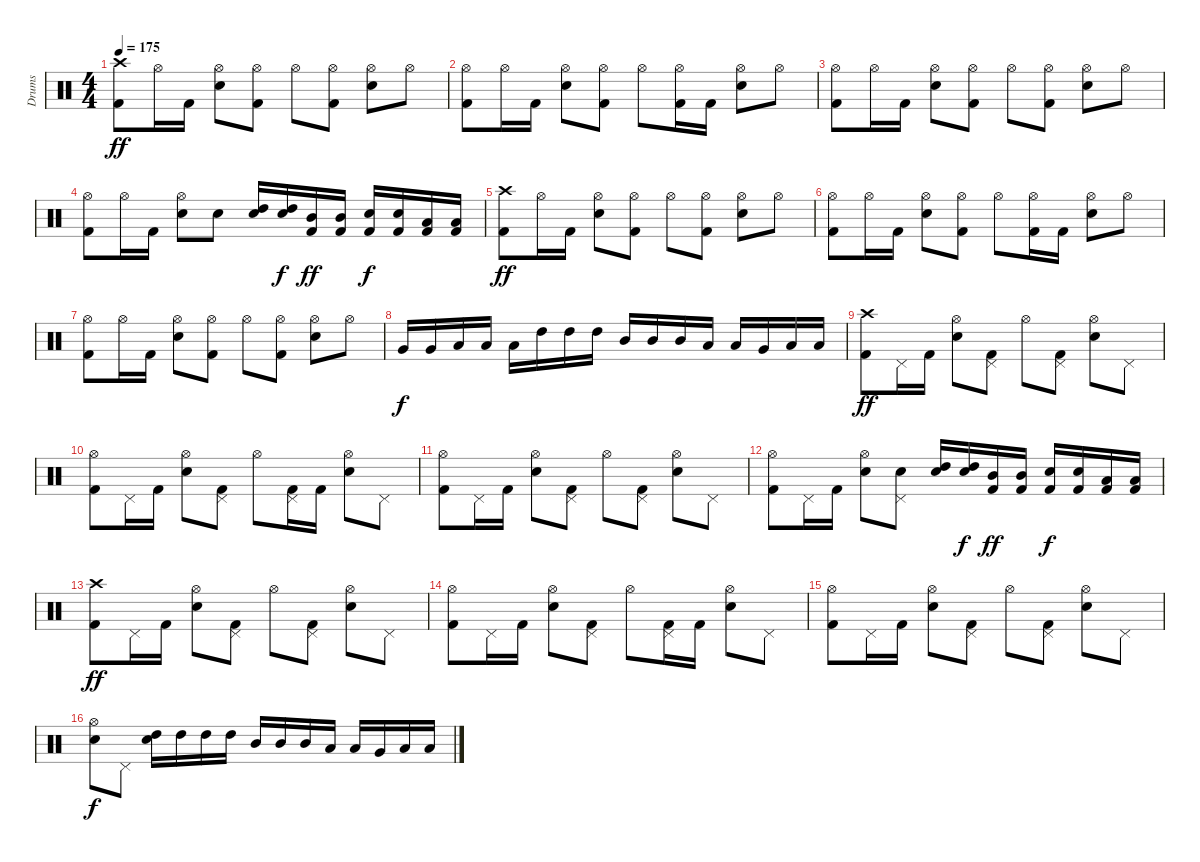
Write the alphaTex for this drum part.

\track ("Drums" "Drums") {instrument percussion}
\staff {score}
\articulation defaults
\ts (4 4)
\tempo 175
\clef neutral
\ks c
("Kick (hit) 2" "Crash high (hit)").8{dy ff} "Hi-Hat (open)".16 "Kick (hit) 2".16 ("Hi-Hat (open)" "Electric Snare (hit)").8 ("Kick (hit) 2" "Hi-Hat (open)").8 "Hi-Hat (open)".8 ("Kick (hit) 2" "Hi-Hat (open)").8 ("Hi-Hat (open)" "Electric Snare (hit)").8 "Hi-Hat (open)".8 |
("Kick (hit) 2" "Hi-Hat (open)").8 "Hi-Hat (open)".16 "Kick (hit) 2".16 ("Hi-Hat (open)" "Electric Snare (hit)").8 ("Kick (hit) 2" "Hi-Hat (open)").8 "Hi-Hat (open)".8 ("Kick (hit) 2" "Hi-Hat (open)").16 "Kick (hit) 2".16 ("Hi-Hat (open)" "Electric Snare (hit)").8 "Hi-Hat (open)".8 |
("Kick (hit) 2" "Hi-Hat (open)").8 "Hi-Hat (open)".16 "Kick (hit) 2".16 ("Hi-Hat (open)" "Electric Snare (hit)").8 ("Kick (hit) 2" "Hi-Hat (open)").8 "Hi-Hat (open)".8 ("Kick (hit) 2" "Hi-Hat (open)").8 ("Hi-Hat (open)" "Electric Snare (hit)").8 "Hi-Hat (open)".8 |
("Kick (hit) 2" "Hi-Hat (open)").8 "Hi-Hat (open)".16 "Kick (hit) 2".16 ("Hi-Hat (open)" "Electric Snare (hit)").8 "Snare (hit) 2".8 ("Electric Snare (hit)" "High Tom (hit)").16 ("Electric Snare (hit)" "High Tom (hit)").16{dy f} ("Kick (hit) 2" "Mid Tom (hit)").16{dy ff} ("Kick (hit) 2" "Mid Tom (hit)").16 ("Kick (hit) 2" "Electric Snare (hit)").16{dy f} ("Kick (hit) 2" "Electric Snare (hit)").16 ("Kick (hit) 2" "Low Tom (hit)").16 ("Kick (hit) 2" "Low Tom (hit)").16 |
("Kick (hit) 2" "Crash high (hit)").8{dy ff} "Hi-Hat (open)".16 "Kick (hit) 2".16 ("Hi-Hat (open)" "Electric Snare (hit)").8 ("Kick (hit) 2" "Hi-Hat (open)").8 "Hi-Hat (open)".8 ("Kick (hit) 2" "Hi-Hat (open)").8 ("Hi-Hat (open)" "Electric Snare (hit)").8 "Hi-Hat (open)".8 |
("Kick (hit) 2" "Hi-Hat (open)").8 "Hi-Hat (open)".16 "Kick (hit) 2".16 ("Hi-Hat (open)" "Electric Snare (hit)").8 ("Kick (hit) 2" "Hi-Hat (open)").8 "Hi-Hat (open)".8 ("Kick (hit) 2" "Hi-Hat (open)").16 "Kick (hit) 2".16 ("Hi-Hat (open)" "Electric Snare (hit)").8 "Hi-Hat (open)".8 |
("Kick (hit) 2" "Hi-Hat (open)").8 "Hi-Hat (open)".16 "Kick (hit) 2".16 ("Hi-Hat (open)" "Electric Snare (hit)").8 ("Kick (hit) 2" "Hi-Hat (open)").8 "Hi-Hat (open)".8 ("Kick (hit) 2" "Hi-Hat (open)").8 ("Hi-Hat (open)" "Electric Snare (hit)").8 "Hi-Hat (open)".8 |
"Very Low Tom (hit)".16{dy f} "Very Low Tom (hit)".16 "Low Tom (hit)".16 "Low Tom (hit)".16 "Low Tom (hit)".16 "High Tom (hit)".16 "High Tom (hit)".16 "High Tom (hit)".16 "Mid Tom (hit)".16 "Mid Tom (hit)".16 "Mid Tom (hit)".16 "Low Tom (hit)".16 "Low Tom (hit)".16 "Very Low Tom (hit)".16 "Low Floor Tom (hit)".16 "Low Floor Tom (hit)".16 |
("Kick (hit) 2" "Crash high (hit)").8{dy ff} "Pedal Hi-Hat (hit)".16 "Kick (hit) 2".16 ("Hi-Hat (open)" "Electric Snare (hit)").8 ("Kick (hit) 2" "Pedal Hi-Hat (hit)").8 "Hi-Hat (open)".8 ("Kick (hit) 2" "Pedal Hi-Hat (hit)").8 ("Hi-Hat (open)" "Electric Snare (hit)").8 "Pedal Hi-Hat (hit)".8 |
("Kick (hit) 2" "Hi-Hat (open)").8 "Pedal Hi-Hat (hit)".16 "Kick (hit) 2".16 ("Hi-Hat (open)" "Electric Snare (hit)").8 ("Kick (hit) 2" "Pedal Hi-Hat (hit)").8 "Hi-Hat (open)".8 ("Kick (hit) 2" "Pedal Hi-Hat (hit)").16 "Kick (hit) 2".16 ("Hi-Hat (open)" "Electric Snare (hit)").8 "Pedal Hi-Hat (hit)".8 |
("Kick (hit) 2" "Hi-Hat (open)").8 "Pedal Hi-Hat (hit)".16 "Kick (hit) 2".16 ("Hi-Hat (open)" "Electric Snare (hit)").8 ("Kick (hit) 2" "Pedal Hi-Hat (hit)").8 "Hi-Hat (open)".8 ("Kick (hit) 2" "Pedal Hi-Hat (hit)").8 ("Hi-Hat (open)" "Electric Snare (hit)").8 "Pedal Hi-Hat (hit)".8 |
("Kick (hit) 2" "Hi-Hat (open)").8 "Pedal Hi-Hat (hit)".16 "Kick (hit) 2".16 ("Hi-Hat (open)" "Electric Snare (hit)").8 ("Snare (hit) 2" "Pedal Hi-Hat (hit)").8 ("Electric Snare (hit)" "High Tom (hit)").16 ("Electric Snare (hit)" "High Tom (hit)").16{dy f} ("Kick (hit) 2" "Mid Tom (hit)").16{dy ff} ("Kick (hit) 2" "Mid Tom (hit)").16 ("Kick (hit) 2" "Electric Snare (hit)").16{dy f} ("Kick (hit) 2" "Electric Snare (hit)").16 ("Kick (hit) 2" "Low Tom (hit)").16 ("Kick (hit) 2" "Low Tom (hit)").16 |
("Kick (hit) 2" "Crash high (hit)").8{dy ff} "Pedal Hi-Hat (hit)".16 "Kick (hit) 2".16 ("Hi-Hat (open)" "Electric Snare (hit)").8 ("Kick (hit) 2" "Pedal Hi-Hat (hit)").8 "Hi-Hat (open)".8 ("Kick (hit) 2" "Pedal Hi-Hat (hit)").8 ("Hi-Hat (open)" "Electric Snare (hit)").8 "Pedal Hi-Hat (hit)".8 |
("Kick (hit) 2" "Hi-Hat (open)").8 "Pedal Hi-Hat (hit)".16 "Kick (hit) 2".16 ("Hi-Hat (open)" "Electric Snare (hit)").8 ("Kick (hit) 2" "Pedal Hi-Hat (hit)").8 "Hi-Hat (open)".8 ("Kick (hit) 2" "Pedal Hi-Hat (hit)").16 "Kick (hit) 2".16 ("Hi-Hat (open)" "Electric Snare (hit)").8 "Pedal Hi-Hat (hit)".8 |
("Kick (hit) 2" "Hi-Hat (open)").8 "Pedal Hi-Hat (hit)".16 "Kick (hit) 2".16 ("Hi-Hat (open)" "Electric Snare (hit)").8 ("Kick (hit) 2" "Pedal Hi-Hat (hit)").8 "Hi-Hat (open)".8 ("Kick (hit) 2" "Pedal Hi-Hat (hit)").8 ("Hi-Hat (open)" "Electric Snare (hit)").8 "Pedal Hi-Hat (hit)".8 |
("Hi-Hat (open)" "Snare (hit) 2").8{dy f} "Pedal Hi-Hat (hit)".8 ("High Tom (hit)" "Snare (hit) 2").16 "High Tom (hit)".16 "High Tom (hit)".16 "High Tom (hit)".16 "Mid Tom (hit)".16 "Mid Tom (hit)".16 "Mid Tom (hit)".16 "Low Tom (hit)".16 "Low Tom (hit)".16 "Very Low Tom (hit)".16 "Low Floor Tom (hit)".16 "Low Floor Tom (hit)".16
